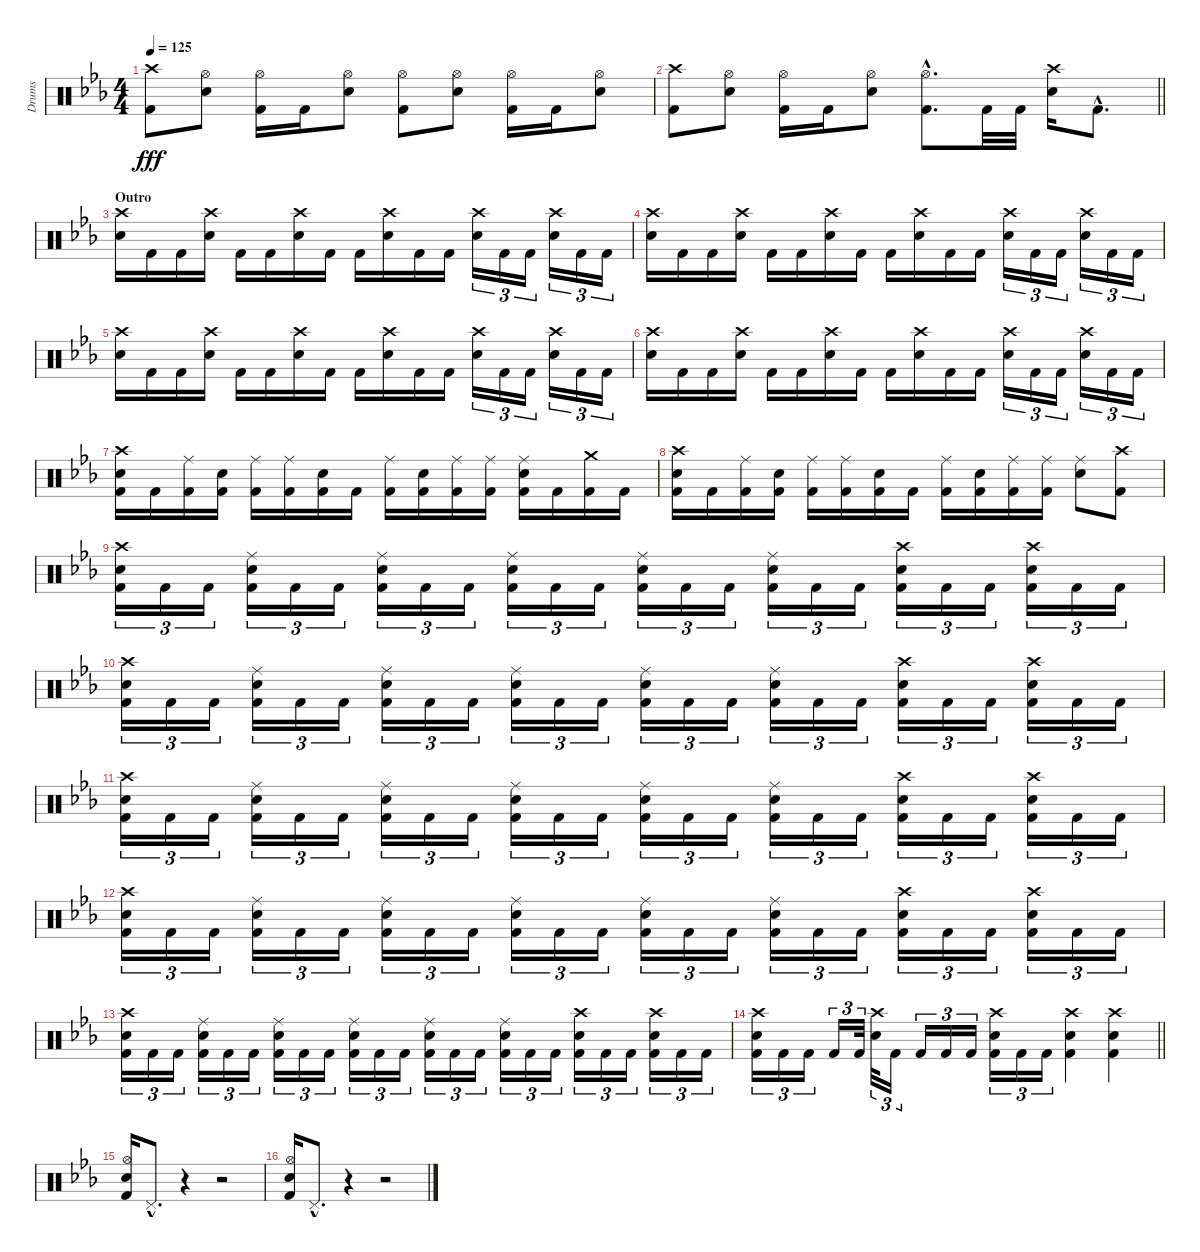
\track ("Drums" "Drums") {instrument percussion}
\staff {score}
\articulation defaults
\ts (4 4)
\tempo 125
\clef neutral
\ks cminor
("Crash high (hit)" "Kick (hit) 2").8{dy fff} ("Hi-Hat (open)" "Snare (hit) 2").8 ("Hi-Hat (open)" "Kick (hit) 2").16 "Kick (hit) 2".16 ("Hi-Hat (open)" "Snare (hit) 2").8 ("Hi-Hat (open)" "Kick (hit) 2").8 ("Hi-Hat (open)" "Snare (hit) 2").8 ("Hi-Hat (open)" "Kick (hit) 2").16 "Kick (hit) 2".16 ("Hi-Hat (open)" "Snare (hit) 2").8 |
\barLineRight lightlight
("Crash high (hit)" "Kick (hit) 2").8 ("Hi-Hat (open)" "Snare (hit) 2").8 ("Hi-Hat (open)" "Kick (hit) 2").16 "Kick (hit) 2".16 ("Hi-Hat (open)" "Snare (hit) 2").8 ("Hi-Hat (open)"{hac} "Kick (hit) 2"{hac}).8{d} "Kick (hit) 2".32 "Kick (hit) 2".32 ("Crash high (hit)" "Snare (hit) 2").16 "Kick (hit) 2"{hac}.8{d} |
\section ("" "Outro")
("Crash high (hit)" "Snare (hit) 2").16 "Kick (hit) 2".16 "Kick (hit) 2".16 ("Crash high (hit)" "Snare (hit) 2").16 "Kick (hit) 2".16 "Kick (hit) 2".16 ("Crash high (hit)" "Snare (hit) 2").16 "Kick (hit) 2".16 "Kick (hit) 2".16 ("Crash high (hit)" "Snare (hit) 2").16 "Kick (hit) 2".16 "Kick (hit) 2".16 ("Crash high (hit)" "Snare (hit) 2").16{tu (3 2)} "Kick (hit) 2".16{tu (3 2)} "Kick (hit) 2".16{tu (3 2)} ("Crash high (hit)" "Snare (hit) 2").16{tu (3 2)} "Kick (hit) 2".16{tu (3 2)} "Kick (hit) 2".16{tu (3 2)} |
("Crash high (hit)" "Snare (hit) 2").16 "Kick (hit) 2".16 "Kick (hit) 2".16 ("Crash high (hit)" "Snare (hit) 2").16 "Kick (hit) 2".16 "Kick (hit) 2".16 ("Crash high (hit)" "Snare (hit) 2").16 "Kick (hit) 2".16 "Kick (hit) 2".16 ("Crash high (hit)" "Snare (hit) 2").16 "Kick (hit) 2".16 "Kick (hit) 2".16 ("Crash high (hit)" "Snare (hit) 2").16{tu (3 2)} "Kick (hit) 2".16{tu (3 2)} "Kick (hit) 2".16{tu (3 2)} ("Crash high (hit)" "Snare (hit) 2").16{tu (3 2)} "Kick (hit) 2".16{tu (3 2)} "Kick (hit) 2".16{tu (3 2)} |
("Crash high (hit)" "Snare (hit) 2").16 "Kick (hit) 2".16 "Kick (hit) 2".16 ("Crash high (hit)" "Snare (hit) 2").16 "Kick (hit) 2".16 "Kick (hit) 2".16 ("Crash high (hit)" "Snare (hit) 2").16 "Kick (hit) 2".16 "Kick (hit) 2".16 ("Crash high (hit)" "Snare (hit) 2").16 "Kick (hit) 2".16 "Kick (hit) 2".16 ("Crash high (hit)" "Snare (hit) 2").16{tu (3 2)} "Kick (hit) 2".16{tu (3 2)} "Kick (hit) 2".16{tu (3 2)} ("Crash high (hit)" "Snare (hit) 2").16{tu (3 2)} "Kick (hit) 2".16{tu (3 2)} "Kick (hit) 2".16{tu (3 2)} |
("Crash high (hit)" "Snare (hit) 2").16 "Kick (hit) 2".16 "Kick (hit) 2".16 ("Crash high (hit)" "Snare (hit) 2").16 "Kick (hit) 2".16 "Kick (hit) 2".16 ("Crash high (hit)" "Snare (hit) 2").16 "Kick (hit) 2".16 "Kick (hit) 2".16 ("Crash high (hit)" "Snare (hit) 2").16 "Kick (hit) 2".16 "Kick (hit) 2".16 ("Crash high (hit)" "Snare (hit) 2").16{tu (3 2)} "Kick (hit) 2".16{tu (3 2)} "Kick (hit) 2".16{tu (3 2)} ("Crash high (hit)" "Snare (hit) 2").16{tu (3 2)} "Kick (hit) 2".16{tu (3 2)} "Kick (hit) 2".16{tu (3 2)} |
("Crash high (hit)" "Snare (hit) 2" "Kick (hit) 2").16 "Kick (hit) 2".16 ("Ride (middle)" "Kick (hit) 2").16 ("Snare (hit) 2" "Kick (hit) 2").16 ("Ride (middle)" "Kick (hit) 2").16 ("Ride (middle)" "Kick (hit) 2").16 ("Snare (hit) 2" "Kick (hit) 2").16 "Kick (hit) 2".16 ("Ride (middle)" "Kick (hit) 2").16 ("Snare (hit) 2" "Kick (hit) 2").16 ("Ride (middle)" "Kick (hit) 2").16 ("Ride (middle)" "Kick (hit) 2").16 ("Ride (middle)" "Snare (hit) 2" "Kick (hit) 2").16 "Kick (hit) 2".16 ("Crash medium (hit)" "Kick (hit) 2").16 "Kick (hit) 2".16 |
("Crash high (hit)" "Snare (hit) 2" "Kick (hit) 2").16 "Kick (hit) 2".16 ("Ride (middle)" "Kick (hit) 2").16 ("Snare (hit) 2" "Kick (hit) 2").16 ("Ride (middle)" "Kick (hit) 2").16 ("Ride (middle)" "Kick (hit) 2").16 ("Snare (hit) 2" "Kick (hit) 2").16 "Kick (hit) 2".16 ("Ride (middle)" "Kick (hit) 2").16 ("Snare (hit) 2" "Kick (hit) 2").16 ("Ride (middle)" "Kick (hit) 2").16 ("Ride (middle)" "Kick (hit) 2").16 ("Ride (middle)" "Snare (hit) 2").8 ("Crash high (hit)" "Kick (hit) 2").8 |
("Crash high (hit)" "Snare (hit) 2" "Kick (hit) 2").16{tu (3 2)} "Kick (hit) 2".16{tu (3 2)} "Kick (hit) 2".16{tu (3 2)} ("Ride (middle)" "Snare (hit) 2" "Kick (hit) 2").16{tu (3 2)} "Kick (hit) 2".16{tu (3 2)} "Kick (hit) 2".16{tu (3 2)} ("Ride (middle)" "Snare (hit) 2" "Kick (hit) 2").16{tu (3 2)} "Kick (hit) 2".16{tu (3 2)} "Kick (hit) 2".16{tu (3 2)} ("Ride (middle)" "Snare (hit) 2" "Kick (hit) 2").16{tu (3 2)} "Kick (hit) 2".16{tu (3 2)} "Kick (hit) 2".16{tu (3 2)} ("Ride (middle)" "Snare (hit) 2" "Kick (hit) 2").16{tu (3 2)} "Kick (hit) 2".16{tu (3 2)} "Kick (hit) 2".16{tu (3 2)} ("Ride (middle)" "Snare (hit) 2" "Kick (hit) 2").16{tu (3 2)} "Kick (hit) 2".16{tu (3 2)} "Kick (hit) 2".16{tu (3 2)} ("Crash high (hit)" "Snare (hit) 2" "Kick (hit) 2").16{tu (3 2)} "Kick (hit) 2".16{tu (3 2)} "Kick (hit) 2".16{tu (3 2)} ("Crash high (hit)" "Snare (hit) 2" "Kick (hit) 2").16{tu (3 2)} "Kick (hit) 2".16{tu (3 2)} "Kick (hit) 2".16{tu (3 2)} |
("Crash high (hit)" "Snare (hit) 2" "Kick (hit) 2").16{tu (3 2)} "Kick (hit) 2".16{tu (3 2)} "Kick (hit) 2".16{tu (3 2)} ("Ride (middle)" "Snare (hit) 2" "Kick (hit) 2").16{tu (3 2)} "Kick (hit) 2".16{tu (3 2)} "Kick (hit) 2".16{tu (3 2)} ("Ride (middle)" "Snare (hit) 2" "Kick (hit) 2").16{tu (3 2)} "Kick (hit) 2".16{tu (3 2)} "Kick (hit) 2".16{tu (3 2)} ("Ride (middle)" "Snare (hit) 2" "Kick (hit) 2").16{tu (3 2)} "Kick (hit) 2".16{tu (3 2)} "Kick (hit) 2".16{tu (3 2)} ("Ride (middle)" "Snare (hit) 2" "Kick (hit) 2").16{tu (3 2)} "Kick (hit) 2".16{tu (3 2)} "Kick (hit) 2".16{tu (3 2)} ("Ride (middle)" "Snare (hit) 2" "Kick (hit) 2").16{tu (3 2)} "Kick (hit) 2".16{tu (3 2)} "Kick (hit) 2".16{tu (3 2)} ("Crash high (hit)" "Snare (hit) 2" "Kick (hit) 2").16{tu (3 2)} "Kick (hit) 2".16{tu (3 2)} "Kick (hit) 2".16{tu (3 2)} ("Crash high (hit)" "Snare (hit) 2" "Kick (hit) 2").16{tu (3 2)} "Kick (hit) 2".16{tu (3 2)} "Kick (hit) 2".16{tu (3 2)} |
("Crash high (hit)" "Snare (hit) 2" "Kick (hit) 2").16{tu (3 2)} "Kick (hit) 2".16{tu (3 2)} "Kick (hit) 2".16{tu (3 2)} ("Ride (middle)" "Snare (hit) 2" "Kick (hit) 2").16{tu (3 2)} "Kick (hit) 2".16{tu (3 2)} "Kick (hit) 2".16{tu (3 2)} ("Ride (middle)" "Snare (hit) 2" "Kick (hit) 2").16{tu (3 2)} "Kick (hit) 2".16{tu (3 2)} "Kick (hit) 2".16{tu (3 2)} ("Ride (middle)" "Snare (hit) 2" "Kick (hit) 2").16{tu (3 2)} "Kick (hit) 2".16{tu (3 2)} "Kick (hit) 2".16{tu (3 2)} ("Ride (middle)" "Snare (hit) 2" "Kick (hit) 2").16{tu (3 2)} "Kick (hit) 2".16{tu (3 2)} "Kick (hit) 2".16{tu (3 2)} ("Ride (middle)" "Snare (hit) 2" "Kick (hit) 2").16{tu (3 2)} "Kick (hit) 2".16{tu (3 2)} "Kick (hit) 2".16{tu (3 2)} ("Crash high (hit)" "Snare (hit) 2" "Kick (hit) 2").16{tu (3 2)} "Kick (hit) 2".16{tu (3 2)} "Kick (hit) 2".16{tu (3 2)} ("Crash high (hit)" "Snare (hit) 2" "Kick (hit) 2").16{tu (3 2)} "Kick (hit) 2".16{tu (3 2)} "Kick (hit) 2".16{tu (3 2)} |
("Crash high (hit)" "Snare (hit) 2" "Kick (hit) 2").16{tu (3 2)} "Kick (hit) 2".16{tu (3 2)} "Kick (hit) 2".16{tu (3 2)} ("Ride (middle)" "Snare (hit) 2" "Kick (hit) 2").16{tu (3 2)} "Kick (hit) 2".16{tu (3 2)} "Kick (hit) 2".16{tu (3 2)} ("Ride (middle)" "Snare (hit) 2" "Kick (hit) 2").16{tu (3 2)} "Kick (hit) 2".16{tu (3 2)} "Kick (hit) 2".16{tu (3 2)} ("Ride (middle)" "Snare (hit) 2" "Kick (hit) 2").16{tu (3 2)} "Kick (hit) 2".16{tu (3 2)} "Kick (hit) 2".16{tu (3 2)} ("Ride (middle)" "Snare (hit) 2" "Kick (hit) 2").16{tu (3 2)} "Kick (hit) 2".16{tu (3 2)} "Kick (hit) 2".16{tu (3 2)} ("Ride (middle)" "Snare (hit) 2" "Kick (hit) 2").16{tu (3 2)} "Kick (hit) 2".16{tu (3 2)} "Kick (hit) 2".16{tu (3 2)} ("Crash high (hit)" "Snare (hit) 2" "Kick (hit) 2").16{tu (3 2)} "Kick (hit) 2".16{tu (3 2)} "Kick (hit) 2".16{tu (3 2)} ("Crash high (hit)" "Snare (hit) 2" "Kick (hit) 2").16{tu (3 2)} "Kick (hit) 2".16{tu (3 2)} "Kick (hit) 2".16{tu (3 2)} |
("Crash high (hit)" "Snare (hit) 2" "Kick (hit) 2").16{tu (3 2)} "Kick (hit) 2".16{tu (3 2)} "Kick (hit) 2".16{tu (3 2)} ("Ride (middle)" "Snare (hit) 2" "Kick (hit) 2").16{tu (3 2)} "Kick (hit) 2".16{tu (3 2)} "Kick (hit) 2".16{tu (3 2)} ("Ride (middle)" "Snare (hit) 2" "Kick (hit) 2").16{tu (3 2)} "Kick (hit) 2".16{tu (3 2)} "Kick (hit) 2".16{tu (3 2)} ("Ride (middle)" "Snare (hit) 2" "Kick (hit) 2").16{tu (3 2)} "Kick (hit) 2".16{tu (3 2)} "Kick (hit) 2".16{tu (3 2)} ("Ride (middle)" "Snare (hit) 2" "Kick (hit) 2").16{tu (3 2)} "Kick (hit) 2".16{tu (3 2)} "Kick (hit) 2".16{tu (3 2)} ("Ride (middle)" "Snare (hit) 2" "Kick (hit) 2").16{tu (3 2)} "Kick (hit) 2".16{tu (3 2)} "Kick (hit) 2".16{tu (3 2)} ("Crash high (hit)" "Snare (hit) 2" "Kick (hit) 2").16{tu (3 2)} "Kick (hit) 2".16{tu (3 2)} "Kick (hit) 2".16{tu (3 2)} ("Crash high (hit)" "Snare (hit) 2" "Kick (hit) 2").16{tu (3 2)} "Kick (hit) 2".16{tu (3 2)} "Kick (hit) 2".16{tu (3 2)} |
\barLineRight lightlight
("Crash high (hit)" "Snare (hit) 2" "Kick (hit) 2").16{tu (3 2)} "Kick (hit) 2".16{tu (3 2)} "Kick (hit) 2".16{tu (3 2)} "Kick (hit) 2".16{tu (3 2)} "Kick (hit) 2".32{tu (3 2)} ("Crash high (hit)" "Snare (hit) 2").32{tu (3 2)} "Kick (hit) 2".16{tu (3 2)} "Kick (hit) 2".16{tu (3 2)} "Kick (hit) 2".16{tu (3 2)} "Kick (hit) 2".16{tu (3 2)} ("Crash high (hit)" "Snare (hit) 2" "Kick (hit) 2").16{tu (3 2)} "Kick (hit) 2".16{tu (3 2)} "Kick (hit) 2".16{tu (3 2)} ("Crash high (hit)" "Snare (hit) 2" "Kick (hit) 2").4 ("Crash high (hit)" "Snare (hit) 2" "Kick (hit) 2").4 |
("Hi-Hat (open)" "Snare (hit) 2" "Kick (hit) 2").16 "Pedal Hi-Hat (hit)"{hac}.8{d} r.4 r.2 |
("Hi-Hat (open)" "Snare (hit) 2" "Kick (hit) 2").16 "Pedal Hi-Hat (hit)"{hac}.8{d} r.4 r.2
